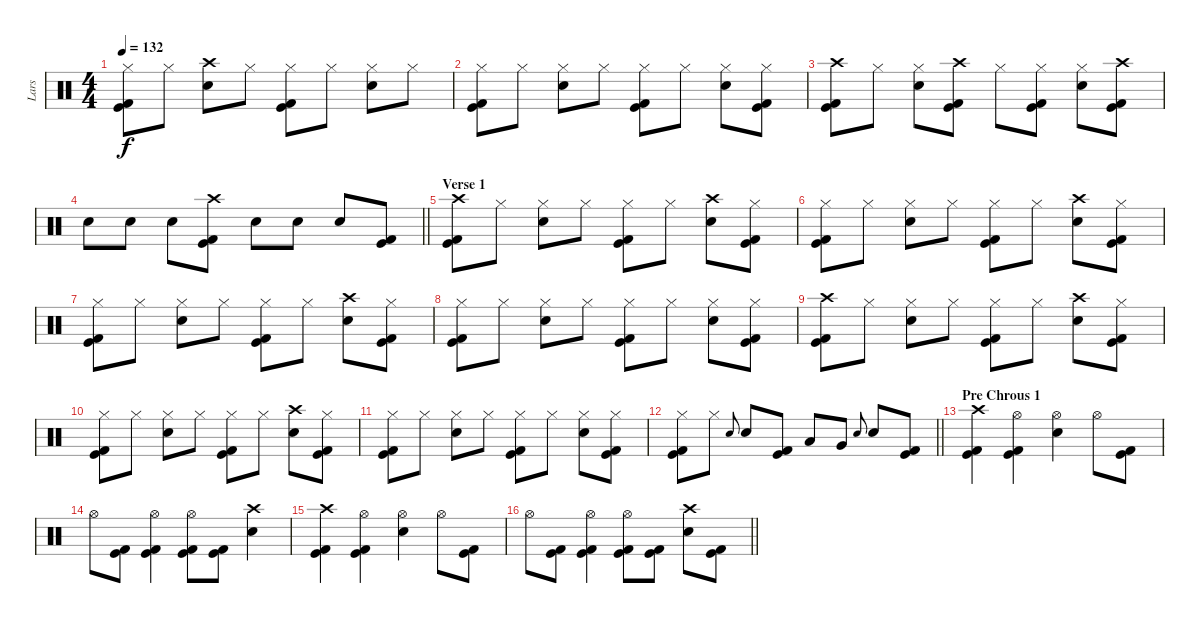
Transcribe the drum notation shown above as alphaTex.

\track ("Lars" "Lars") {instrument percussion}
\staff {score}
\articulation defaults
\ts (4 4)
\tempo 132
\clef neutral
\ks c
("Hi-Hat (closed)" "Kick (hit)" "Kick (hit) 2").8{dy f} "Hi-Hat (closed)".8 ("Crash high (hit)" "Electric Snare (hit)").8 "Hi-Hat (closed)".8 ("Hi-Hat (closed)" "Kick (hit)" "Kick (hit) 2").8 "Hi-Hat (closed)".8 ("Hi-Hat (closed)" "Electric Snare (hit)").8 "Hi-Hat (closed)".8 |
("Hi-Hat (closed)" "Kick (hit)" "Kick (hit) 2").8 "Hi-Hat (closed)".8 ("Hi-Hat (closed)" "Electric Snare (hit)").8 "Hi-Hat (closed)".8 ("Hi-Hat (closed)" "Kick (hit)" "Kick (hit) 2").8 "Hi-Hat (closed)".8 ("Hi-Hat (closed)" "Electric Snare (hit)").8 ("Hi-Hat (closed)" "Kick (hit)" "Kick (hit) 2").8 |
("Crash high (hit)" "Kick (hit)" "Kick (hit) 2").8 "Hi-Hat (closed)".8 ("Hi-Hat (closed)" "Electric Snare (hit)").8 ("Crash high (hit)" "Kick (hit)" "Kick (hit) 2").8 "Hi-Hat (closed)".8 ("Hi-Hat (closed)" "Kick (hit)" "Kick (hit) 2").8 ("Hi-Hat (closed)" "Electric Snare (hit)").8 ("Crash high (hit)" "Kick (hit)" "Kick (hit) 2").8 |
\barLineRight lightlight "Electric Snare (hit)".8 "Electric Snare (hit)".8 "Electric Snare (hit)".8
("Crash high (hit)" "Kick (hit)" "Kick (hit) 2").8 "Electric Snare (hit)".8 "Electric Snare (hit)".8 "Electric Snare (hit)".8 ("Kick (hit)" "Kick (hit) 2").8 |
\section ("" "Verse 1")
("Crash high (hit)" "Kick (hit)" "Kick (hit) 2").8 "Hi-Hat (closed)".8 ("Hi-Hat (closed)" "Electric Snare (hit)").8 "Hi-Hat (closed)".8 ("Hi-Hat (closed)" "Kick (hit)" "Kick (hit) 2").8 "Hi-Hat (closed)".8 ("Crash high (hit)" "Electric Snare (hit)").8 ("Hi-Hat (closed)" "Kick (hit)" "Kick (hit) 2").8 |
("Hi-Hat (closed)" "Kick (hit)" "Kick (hit) 2").8 "Hi-Hat (closed)".8 ("Hi-Hat (closed)" "Electric Snare (hit)").8 "Hi-Hat (closed)".8 ("Hi-Hat (closed)" "Kick (hit)" "Kick (hit) 2").8 "Hi-Hat (closed)".8 ("Crash high (hit)" "Electric Snare (hit)").8 ("Hi-Hat (closed)" "Kick (hit)" "Kick (hit) 2").8 |
("Hi-Hat (closed)" "Kick (hit)" "Kick (hit) 2").8 "Hi-Hat (closed)".8 ("Hi-Hat (closed)" "Electric Snare (hit)").8 "Hi-Hat (closed)".8 ("Hi-Hat (closed)" "Kick (hit)" "Kick (hit) 2").8 "Hi-Hat (closed)".8 ("Crash high (hit)" "Electric Snare (hit)").8 ("Hi-Hat (closed)" "Kick (hit)" "Kick (hit) 2").8 |
("Hi-Hat (closed)" "Kick (hit)" "Kick (hit) 2").8 "Hi-Hat (closed)".8 ("Hi-Hat (closed)" "Electric Snare (hit)").8 "Hi-Hat (closed)".8 ("Hi-Hat (closed)" "Kick (hit)" "Kick (hit) 2").8 "Hi-Hat (closed)".8 ("Hi-Hat (closed)" "Electric Snare (hit)").8 ("Hi-Hat (closed)" "Kick (hit)" "Kick (hit) 2").8 |
("Crash high (hit)" "Kick (hit)" "Kick (hit) 2").8 "Hi-Hat (closed)".8 ("Hi-Hat (closed)" "Electric Snare (hit)").8 "Hi-Hat (closed)".8 ("Hi-Hat (closed)" "Kick (hit)" "Kick (hit) 2").8 "Hi-Hat (closed)".8 ("Crash high (hit)" "Electric Snare (hit)").8 ("Hi-Hat (closed)" "Kick (hit)" "Kick (hit) 2").8 |
("Hi-Hat (closed)" "Kick (hit)" "Kick (hit) 2").8 "Hi-Hat (closed)".8 ("Hi-Hat (closed)" "Electric Snare (hit)").8 "Hi-Hat (closed)".8 ("Hi-Hat (closed)" "Kick (hit)" "Kick (hit) 2").8 "Hi-Hat (closed)".8 ("Crash high (hit)" "Electric Snare (hit)").8 ("Hi-Hat (closed)" "Kick (hit)" "Kick (hit) 2").8 |
("Hi-Hat (closed)" "Kick (hit)" "Kick (hit) 2").8 "Hi-Hat (closed)".8 ("Hi-Hat (closed)" "Electric Snare (hit)").8 "Hi-Hat (closed)".8 ("Hi-Hat (closed)" "Kick (hit)" "Kick (hit) 2").8 "Hi-Hat (closed)".8 ("Hi-Hat (closed)" "Electric Snare (hit)").8 ("Hi-Hat (closed)" "Kick (hit)" "Kick (hit) 2").8 |
\barLineRight lightlight
("Hi-Hat (closed)" "Kick (hit)" "Kick (hit) 2").8 "Hi-Hat (closed)".8 "Electric Snare (hit)".8{gr onbeat} "Electric Snare (hit)".8 ("Kick (hit)" "Kick (hit) 2").8 "Low Tom (hit)".8 "Very Low Tom (hit)".8 "Electric Snare (hit)".8{gr onbeat} "Electric Snare (hit)".8 ("Kick (hit)" "Kick (hit) 2").8 |
\section ("" "Pre Chrous 1")
("Crash high (hit)" "Kick (hit)" "Kick (hit) 2").4 ("Hi-Hat (open)" "Kick (hit)" "Kick (hit) 2").4 ("Hi-Hat (open)" "Electric Snare (hit)").4 "Hi-Hat (open)".8 ("Kick (hit)" "Kick (hit) 2").8 |
"Hi-Hat (open)".8 ("Kick (hit)" "Kick (hit) 2").8 ("Hi-Hat (open)" "Kick (hit)" "Kick (hit) 2").4 ("Hi-Hat (open)" "Kick (hit)" "Kick (hit) 2").8 ("Kick (hit)" "Kick (hit) 2").8 ("Crash high (hit)" "Electric Snare (hit)").4 |
("Crash high (hit)" "Kick (hit)" "Kick (hit) 2").4 ("Hi-Hat (open)" "Kick (hit)" "Kick (hit) 2").4 ("Hi-Hat (open)" "Electric Snare (hit)").4 "Hi-Hat (open)".8 ("Kick (hit)" "Kick (hit) 2").8 |
\barLineRight lightlight "Hi-Hat (open)".8
("Kick (hit)" "Kick (hit) 2").8 ("Hi-Hat (open)" "Kick (hit)" "Kick (hit) 2").4 ("Hi-Hat (open)" "Kick (hit)" "Kick (hit) 2").8 ("Kick (hit)" "Kick (hit) 2").8 ("Crash high (hit)" "Electric Snare (hit)").8 ("Kick (hit)" "Kick (hit) 2").8
